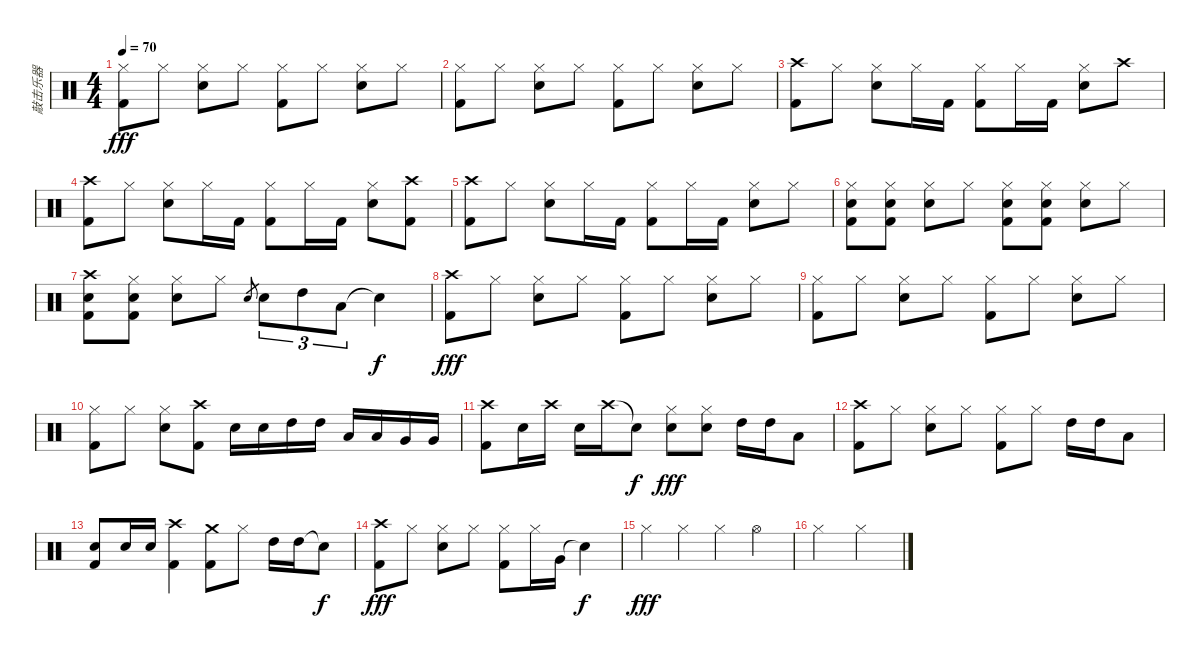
\track ("敲击乐器" "敲击乐器") {instrument percussion}
\staff {score}
\articulation defaults
\ts (4 4)
\tempo 70
\clef neutral
\ks c
("Hi-Hat (closed)" "Kick (hit) 2").8{dy fff} "Hi-Hat (closed)".8 ("Hi-Hat (closed)" "Electric Snare (hit)").8 "Hi-Hat (closed)".8 ("Hi-Hat (closed)" "Kick (hit) 2").8 "Hi-Hat (closed)".8 ("Hi-Hat (closed)" "Electric Snare (hit)").8 "Hi-Hat (closed)".8 |
("Hi-Hat (closed)" "Kick (hit) 2").8 "Hi-Hat (closed)".8 ("Hi-Hat (closed)" "Electric Snare (hit)").8 "Hi-Hat (closed)".8 ("Hi-Hat (closed)" "Kick (hit) 2").8 "Hi-Hat (closed)".8 ("Hi-Hat (closed)" "Electric Snare (hit)").8 "Hi-Hat (closed)".8 |
("Crash high (hit)" "Kick (hit) 2").8 "Hi-Hat (closed)".8 ("Hi-Hat (closed)" "Electric Snare (hit)").8 "Hi-Hat (closed)".16 "Kick (hit) 2".16 ("Hi-Hat (closed)" "Kick (hit) 2").8 "Hi-Hat (closed)".16 "Kick (hit) 2".16 ("Hi-Hat (closed)" "Electric Snare (hit)").8 "Crash high (hit)".8 |
("Crash high (hit)" "Kick (hit) 2").8 "Hi-Hat (closed)".8 ("Hi-Hat (closed)" "Electric Snare (hit)").8 "Hi-Hat (closed)".16 "Kick (hit) 2".16 ("Hi-Hat (closed)" "Kick (hit) 2").8 "Hi-Hat (closed)".16 "Kick (hit) 2".16 ("Hi-Hat (closed)" "Electric Snare (hit)").8 ("Crash high (hit)" "Kick (hit) 2").8 |
("Crash high (hit)" "Kick (hit) 2").8 "Hi-Hat (closed)".8 ("Hi-Hat (closed)" "Electric Snare (hit)").8 "Hi-Hat (closed)".16 "Kick (hit) 2".16 ("Hi-Hat (closed)" "Kick (hit) 2").8 "Hi-Hat (closed)".16 "Kick (hit) 2".16 ("Hi-Hat (closed)" "Electric Snare (hit)").8 "Hi-Hat (closed)".8 |
("Hi-Hat (closed)" "Electric Snare (hit)" "Kick (hit) 2").8 ("Hi-Hat (closed)" "Electric Snare (hit)" "Kick (hit) 2").8 ("Hi-Hat (closed)" "Electric Snare (hit)").8 "Hi-Hat (closed)".8 ("Hi-Hat (closed)" "Electric Snare (hit)" "Kick (hit) 2").8 ("Hi-Hat (closed)" "Electric Snare (hit)" "Kick (hit) 2").8 ("Hi-Hat (closed)" "Electric Snare (hit)").8 "Hi-Hat (closed)".8 |
("Crash high (hit)" "Electric Snare (hit)" "Kick (hit) 2").8 ("Hi-Hat (closed)" "Electric Snare (hit)" "Kick (hit) 2").8 ("Hi-Hat (closed)" "Electric Snare (hit)").8 "Hi-Hat (closed)".8 "Electric Snare (hit)".8{gr} "Electric Snare (hit)".8{tu (3 2)} "High Tom (hit)".8{tu (3 2)} "Low Tom (hit)".8{tu (3 2)} "Snare (hit)"{t}.4{dy f} |
("Crash high (hit)" "Kick (hit) 2").8{dy fff} "Hi-Hat (closed)".8 ("Hi-Hat (closed)" "Electric Snare (hit)").8 "Hi-Hat (closed)".8 ("Hi-Hat (closed)" "Kick (hit) 2").8 "Hi-Hat (closed)".8 ("Hi-Hat (closed)" "Electric Snare (hit)").8 "Hi-Hat (closed)".8 |
("Hi-Hat (closed)" "Kick (hit) 2").8 "Hi-Hat (closed)".8 ("Hi-Hat (closed)" "Electric Snare (hit)").8 "Hi-Hat (closed)".8 ("Hi-Hat (closed)" "Kick (hit) 2").8 "Hi-Hat (closed)".8 ("Hi-Hat (closed)" "Electric Snare (hit)").8 "Hi-Hat (closed)".8 |
("Hi-Hat (closed)" "Kick (hit) 2").8 "Hi-Hat (closed)".8 ("Hi-Hat (closed)" "Electric Snare (hit)").8 ("Crash high (hit)" "Kick (hit) 2").8 "Electric Snare (hit)".16 "Electric Snare (hit)".16 "High Tom (hit)".16 "High Tom (hit)".16 "Low Tom (hit)".16 "Low Tom (hit)".16 "Very Low Tom (hit)".16 "Very Low Tom (hit)".16 |
("Crash high (hit)" "Kick (hit) 2").8 "Electric Snare (hit)".16 "Crash high (hit)".16 "Electric Snare (hit)".16 "Crash high (hit)".16 "Snare (hit)"{t}.8{dy f} ("Hi-Hat (closed)" "Electric Snare (hit)").8{dy fff} ("Hi-Hat (closed)" "Electric Snare (hit)").8 "High Tom (hit)".16 "High Tom (hit)".16 "Low Tom (hit)".8 |
("Crash high (hit)" "Kick (hit) 2").8 "Hi-Hat (closed)".8 ("Hi-Hat (closed)" "Electric Snare (hit)").8 "Hi-Hat (closed)".8 ("Hi-Hat (closed)" "Kick (hit) 2").8 "Hi-Hat (closed)".8 "High Tom (hit)".16 "High Tom (hit)".16 "Low Tom (hit)".8 |
("Electric Snare (hit)" "Kick (hit) 2").8 "Electric Snare (hit)".16 "Electric Snare (hit)".16 ("Crash high (hit)" "Kick (hit) 2").4 ("Crash medium (hit)" "Kick (hit) 2").8 "Hi-Hat (closed)".8 "High Tom (hit)".16 "High Tom (hit)".16 "Snare (hit)"{t}.8{dy f} |
("Crash high (hit)" "Kick (hit) 2").8{dy fff} "Hi-Hat (closed)".8 ("Hi-Hat (closed)" "Electric Snare (hit)").8 "Hi-Hat (closed)".8 ("Hi-Hat (closed)" "Kick (hit) 2").8 "Hi-Hat (closed)".16 "Very Low Tom (hit)".16 "Snare (hit)"{t}.4{dy f} |
"Hi-Hat (closed)".4{dy fff} "Hi-Hat (closed)".4 "Hi-Hat (closed)".4 "Hi-Hat (open)".4 |
"Hi-Hat (closed)".2 "Hi-Hat (closed)".2
